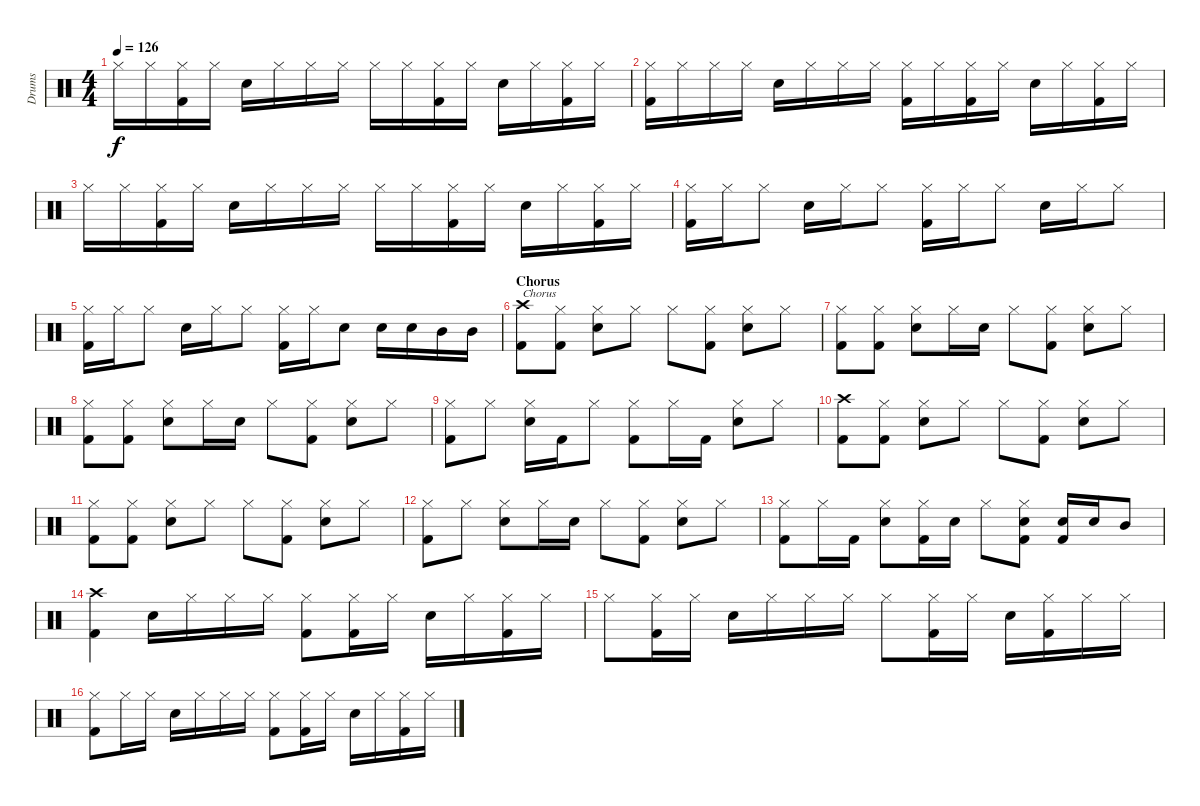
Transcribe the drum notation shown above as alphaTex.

\track ("Drums" "Drums") {instrument percussion}
\staff {score}
\articulation defaults
\ts (4 4)
\tempo 126
\clef neutral
\ks c "Hi-Hat (closed)".16{dy f} "Hi-Hat (closed)".16
("Hi-Hat (closed)" "Kick (hit) 2").16 "Hi-Hat (closed)".16 "Electric Snare (hit)".16 "Hi-Hat (closed)".16 "Hi-Hat (closed)".16 "Hi-Hat (closed)".16 "Hi-Hat (closed)".16 "Hi-Hat (closed)".16 ("Hi-Hat (closed)" "Kick (hit) 2").16 "Hi-Hat (closed)".16 "Electric Snare (hit)".16 "Hi-Hat (closed)".16 ("Hi-Hat (closed)" "Kick (hit) 2").16 "Hi-Hat (closed)".16 |
("Hi-Hat (closed)" "Kick (hit) 2").16 "Hi-Hat (closed)".16 "Hi-Hat (closed)".16 "Hi-Hat (closed)".16 "Electric Snare (hit)".16 "Hi-Hat (closed)".16 "Hi-Hat (closed)".16 "Hi-Hat (closed)".16 ("Hi-Hat (closed)" "Kick (hit) 2").16 "Hi-Hat (closed)".16 ("Hi-Hat (closed)" "Kick (hit) 2").16 "Hi-Hat (closed)".16 "Electric Snare (hit)".16 "Hi-Hat (closed)".16 ("Hi-Hat (closed)" "Kick (hit) 2").16 "Hi-Hat (closed)".16 |
"Hi-Hat (closed)".16 "Hi-Hat (closed)".16 ("Hi-Hat (closed)" "Kick (hit) 2").16 "Hi-Hat (closed)".16 "Electric Snare (hit)".16 "Hi-Hat (closed)".16 "Hi-Hat (closed)".16 "Hi-Hat (closed)".16 "Hi-Hat (closed)".16 "Hi-Hat (closed)".16 ("Hi-Hat (closed)" "Kick (hit) 2").16 "Hi-Hat (closed)".16 "Electric Snare (hit)".16 "Hi-Hat (closed)".16 ("Hi-Hat (closed)" "Kick (hit) 2").16 "Hi-Hat (closed)".16 |
("Hi-Hat (closed)" "Kick (hit) 2").16 "Hi-Hat (closed)".16 "Hi-Hat (closed)".8 "Electric Snare (hit)".16 "Hi-Hat (closed)".16 "Hi-Hat (closed)".8 ("Hi-Hat (closed)" "Kick (hit) 2").16 "Hi-Hat (closed)".16 "Hi-Hat (closed)".8 "Electric Snare (hit)".16 "Hi-Hat (closed)".16 "Hi-Hat (closed)".8 |
("Hi-Hat (closed)" "Kick (hit) 2").16 "Hi-Hat (closed)".16 "Hi-Hat (closed)".8 "Electric Snare (hit)".16 "Hi-Hat (closed)".16 "Hi-Hat (closed)".8 ("Hi-Hat (closed)" "Kick (hit) 2").16 "Hi-Hat (closed)".16 "Electric Snare (hit)".8 "Electric Snare (hit)".16 "Electric Snare (hit)".16 "Mid Tom (hit)".16 "Mid Tom (hit)".16 |
\section ("" "Chorus")
("Crash high (hit)" "Kick (hit) 2").8{txt "Chorus"} ("Hi-Hat (closed)" "Kick (hit) 2").8 ("Hi-Hat (closed)" "Electric Snare (hit)").8 "Hi-Hat (closed)".8 "Hi-Hat (closed)".8 ("Hi-Hat (closed)" "Kick (hit) 2").8 ("Hi-Hat (closed)" "Electric Snare (hit)").8 "Hi-Hat (closed)".8 |
("Hi-Hat (closed)" "Kick (hit) 2").8 ("Hi-Hat (closed)" "Kick (hit) 2").8 ("Hi-Hat (closed)" "Electric Snare (hit)").8 "Hi-Hat (closed)".16 "Electric Snare (hit)".16 "Hi-Hat (closed)".8 ("Hi-Hat (closed)" "Kick (hit) 2").8 ("Hi-Hat (closed)" "Electric Snare (hit)").8 "Hi-Hat (closed)".8 |
("Hi-Hat (closed)" "Kick (hit) 2").8 ("Hi-Hat (closed)" "Kick (hit) 2").8 ("Hi-Hat (closed)" "Electric Snare (hit)").8 "Hi-Hat (closed)".16 "Electric Snare (hit)".16 "Hi-Hat (closed)".8 ("Hi-Hat (closed)" "Kick (hit) 2").8 ("Hi-Hat (closed)" "Electric Snare (hit)").8 "Hi-Hat (closed)".8 |
("Hi-Hat (closed)" "Kick (hit) 2").8 "Hi-Hat (closed)".8 ("Hi-Hat (closed)" "Electric Snare (hit)").16 "Kick (hit) 2".16 "Hi-Hat (closed)".8 ("Hi-Hat (closed)" "Kick (hit) 2").8 "Hi-Hat (closed)".16 "Kick (hit) 2".16 ("Hi-Hat (closed)" "Electric Snare (hit)").8 "Hi-Hat (closed)".8 |
("Crash high (hit)" "Kick (hit) 2").8 ("Hi-Hat (closed)" "Kick (hit) 2").8 ("Hi-Hat (closed)" "Electric Snare (hit)").8 "Hi-Hat (closed)".8 "Hi-Hat (closed)".8 ("Hi-Hat (closed)" "Kick (hit) 2").8 ("Hi-Hat (closed)" "Electric Snare (hit)").8 "Hi-Hat (closed)".8 |
("Hi-Hat (closed)" "Kick (hit) 2").8 ("Hi-Hat (closed)" "Kick (hit) 2").8 ("Hi-Hat (closed)" "Electric Snare (hit)").8 "Hi-Hat (closed)".8 "Hi-Hat (closed)".8 ("Hi-Hat (closed)" "Kick (hit) 2").8 ("Hi-Hat (closed)" "Electric Snare (hit)").8 "Hi-Hat (closed)".8 |
("Hi-Hat (closed)" "Kick (hit) 2").8 "Hi-Hat (closed)".8 ("Hi-Hat (closed)" "Electric Snare (hit)").8 "Hi-Hat (closed)".16 "Electric Snare (hit)".16 "Hi-Hat (closed)".8 ("Hi-Hat (closed)" "Kick (hit) 2").8 ("Hi-Hat (closed)" "Electric Snare (hit)").8 "Hi-Hat (closed)".8 |
("Hi-Hat (closed)" "Kick (hit) 2").8 "Hi-Hat (closed)".16 "Kick (hit) 2".16 ("Hi-Hat (closed)" "Electric Snare (hit)").8 ("Hi-Hat (closed)" "Kick (hit) 2").16 "Electric Snare (hit)".16 "Hi-Hat (closed)".8 ("Hi-Hat (closed)" "Electric Snare (hit)" "Kick (hit) 2").8 ("Electric Snare (hit)" "Kick (hit) 2").16 "Electric Snare (hit)".16 "Mid Tom (hit)".8 |
("Crash high (hit)" "Kick (hit) 2").4 "Electric Snare (hit)".16 "Hi-Hat (closed)".16 "Hi-Hat (closed)".16 "Hi-Hat (closed)".16 ("Hi-Hat (closed)" "Kick (hit) 2").8 ("Hi-Hat (closed)" "Kick (hit) 2").16 "Hi-Hat (closed)".16 "Electric Snare (hit)".16 "Hi-Hat (closed)".16 ("Hi-Hat (closed)" "Kick (hit) 2").16 "Hi-Hat (closed)".16 |
"Hi-Hat (closed)".8 ("Hi-Hat (closed)" "Kick (hit) 2").16 "Hi-Hat (closed)".16 "Electric Snare (hit)".16 "Hi-Hat (closed)".16 "Hi-Hat (closed)".16 "Hi-Hat (closed)".16 "Hi-Hat (closed)".8 ("Hi-Hat (closed)" "Kick (hit) 2").16 "Hi-Hat (closed)".16 "Electric Snare (hit)".16 ("Hi-Hat (closed)" "Kick (hit) 2").16 "Hi-Hat (closed)".16 "Hi-Hat (closed)".16 |
("Hi-Hat (closed)" "Kick (hit) 2").8 "Hi-Hat (closed)".16 "Hi-Hat (closed)".16 "Electric Snare (hit)".16 "Hi-Hat (closed)".16 "Hi-Hat (closed)".16 "Hi-Hat (closed)".16 ("Hi-Hat (closed)" "Kick (hit) 2").8 ("Hi-Hat (closed)" "Kick (hit) 2").16 "Hi-Hat (closed)".16 "Electric Snare (hit)".16 "Hi-Hat (closed)".16 ("Hi-Hat (closed)" "Kick (hit) 2").16 "Hi-Hat (closed)".16
